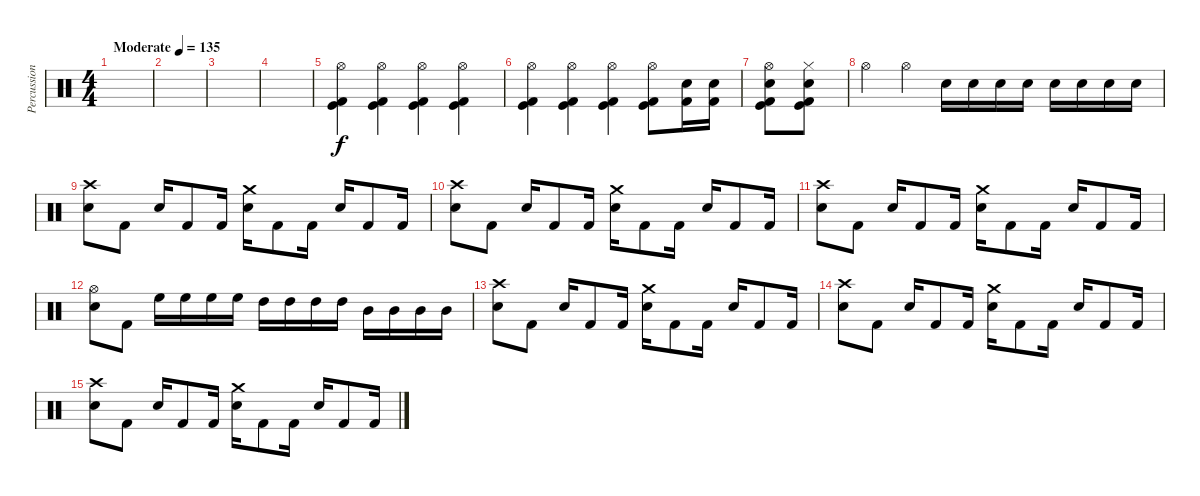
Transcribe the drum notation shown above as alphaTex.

\track ("Percussion" "Percussion") {instrument percussion}
\staff {score}
\articulation defaults
\ts (4 4)
\tempo (135 "Moderate")
\clef neutral
\ks c
|
|
|
|
("Hi-Hat (open)" "Kick (hit)" "Kick (hit) 2").4 ("Hi-Hat (open)" "Kick (hit)" "Kick (hit) 2").4 ("Hi-Hat (open)" "Kick (hit)" "Kick (hit) 2").4 ("Hi-Hat (open)" "Kick (hit)" "Kick (hit) 2").4 |
("Hi-Hat (open)" "Kick (hit)" "Kick (hit) 2").4 ("Hi-Hat (open)" "Kick (hit)" "Kick (hit) 2").4 ("Hi-Hat (open)" "Kick (hit)" "Kick (hit) 2").4 ("Hi-Hat (open)" "Kick (hit) 2" "Kick (hit)").8 ("Snare (hit) 2" "Kick (hit) 2").16 ("Snare (hit) 2" "Kick (hit) 2").16 |
("Hi-Hat (open)" "Kick (hit)" "Electric Snare (hit)" "Kick (hit) 2").8 ("Hi-Hat (closed)" "Kick (hit)" "Electric Snare (hit)" "Kick (hit) 2").8 |
"Hi-Hat (open)".4 "Hi-Hat (open)".4 "Electric Snare (hit)".16 "Electric Snare (hit)".16 "Electric Snare (hit)".16 "Electric Snare (hit)".16 "Electric Snare (hit)".16 "Electric Snare (hit)".16 "Electric Snare (hit)".16 "Electric Snare (hit)".16 |
("Crash high (hit)" "Electric Snare (hit)").8 "Kick (hit) 2".8 "Electric Snare (hit)".16 "Kick (hit) 2".8 "Kick (hit) 2".16 ("Crash medium (hit)" "Electric Snare (hit)").16 "Kick (hit) 2".8 "Kick (hit) 2".16 "Electric Snare (hit)".16 "Kick (hit) 2".8 "Kick (hit) 2".16 |
("Crash high (hit)" "Electric Snare (hit)").8 "Kick (hit) 2".8 "Electric Snare (hit)".16 "Kick (hit) 2".8 "Kick (hit) 2".16 ("Crash medium (hit)" "Electric Snare (hit)").16 "Kick (hit) 2".8 "Kick (hit) 2".16 "Electric Snare (hit)".16 "Kick (hit) 2".8 "Kick (hit) 2".16 |
("Crash high (hit)" "Electric Snare (hit)").8 "Kick (hit) 2".8 "Electric Snare (hit)".16 "Kick (hit) 2".8 "Kick (hit) 2".16 ("Crash medium (hit)" "Electric Snare (hit)").16 "Kick (hit) 2".8 "Kick (hit) 2".16 "Electric Snare (hit)".16 "Kick (hit) 2".8 "Kick (hit) 2".16 |
("Hi-Hat (open)" "Electric Snare (hit)").8 "Kick (hit) 2".8 "High Floor Tom (hit)".16 "High Floor Tom (hit)".16 "High Floor Tom (hit)".16 "High Floor Tom (hit)".16 "High Tom (hit)".16 "High Tom (hit)".16 "High Tom (hit)".16 "High Tom (hit)".16 "Mid Tom (hit)".16 "Mid Tom (hit)".16 "Mid Tom (hit)".16 "Mid Tom (hit)".16 |
("Crash high (hit)" "Electric Snare (hit)").8 "Kick (hit) 2".8 "Electric Snare (hit)".16 "Kick (hit) 2".8 "Kick (hit) 2".16 ("Crash medium (hit)" "Electric Snare (hit)").16 "Kick (hit) 2".8 "Kick (hit) 2".16 "Electric Snare (hit)".16 "Kick (hit) 2".8 "Kick (hit) 2".16 |
("Crash high (hit)" "Electric Snare (hit)").8 "Kick (hit) 2".8 "Electric Snare (hit)".16 "Kick (hit) 2".8 "Kick (hit) 2".16 ("Crash medium (hit)" "Electric Snare (hit)").16 "Kick (hit) 2".8 "Kick (hit) 2".16 "Electric Snare (hit)".16 "Kick (hit) 2".8 "Kick (hit) 2".16 |
("Crash high (hit)" "Electric Snare (hit)").8 "Kick (hit) 2".8 "Electric Snare (hit)".16 "Kick (hit) 2".8 "Kick (hit) 2".16 ("Crash medium (hit)" "Electric Snare (hit)").16 "Kick (hit) 2".8 "Kick (hit) 2".16 "Electric Snare (hit)".16 "Kick (hit) 2".8 "Kick (hit) 2".16
